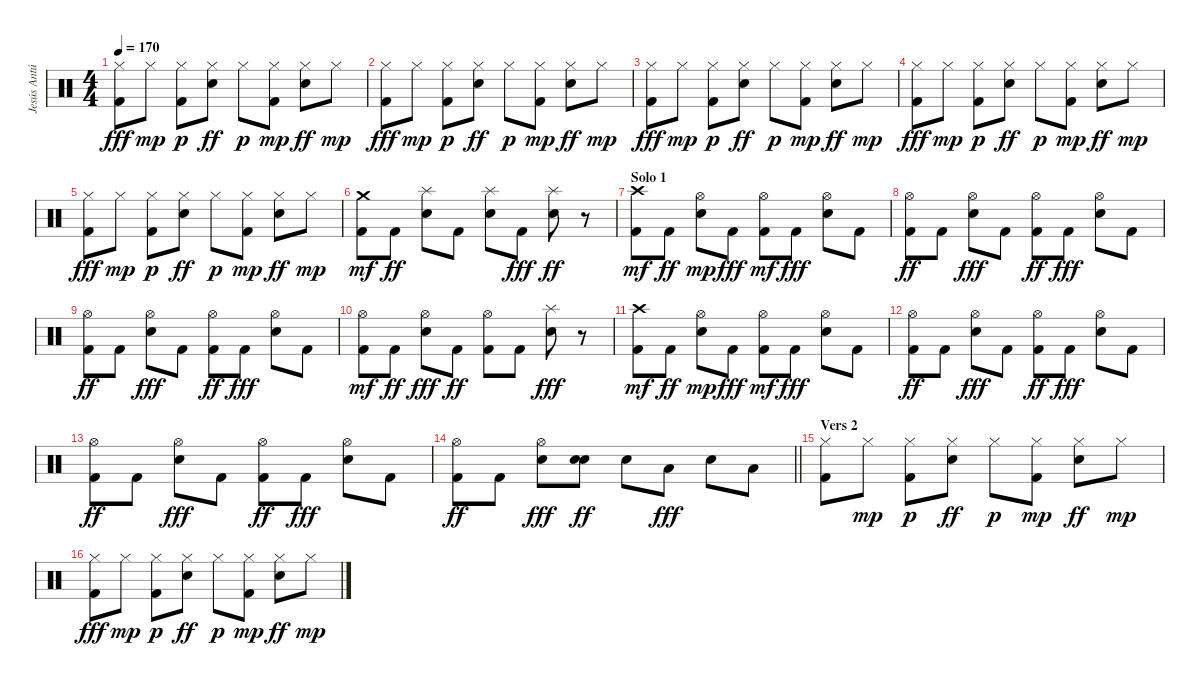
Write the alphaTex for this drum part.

\track ("Jesús Antúnez (Bateria)" "Jesús Antú") {instrument percussion}
\staff {score}
\articulation defaults
\ts (4 4)
\tempo 170
\clef neutral
\ks c
("Kick (hit) 2" "Hi-Hat (closed)").8{dy fff} "Hi-Hat (closed)".8{dy mp} ("Kick (hit) 2" "Hi-Hat (closed)").8{dy p} ("Hi-Hat (closed)" "Electric Snare (hit)").8{dy ff} "Hi-Hat (closed)".8{dy p} ("Kick (hit) 2" "Hi-Hat (closed)").8{dy mp} ("Hi-Hat (closed)" "Electric Snare (hit)").8{dy ff} "Hi-Hat (closed)".8{dy mp} |
("Kick (hit) 2" "Hi-Hat (closed)").8{dy fff} "Hi-Hat (closed)".8{dy mp} ("Kick (hit) 2" "Hi-Hat (closed)").8{dy p} ("Hi-Hat (closed)" "Electric Snare (hit)").8{dy ff} "Hi-Hat (closed)".8{dy p} ("Kick (hit) 2" "Hi-Hat (closed)").8{dy mp} ("Hi-Hat (closed)" "Electric Snare (hit)").8{dy ff} "Hi-Hat (closed)".8{dy mp} |
("Kick (hit) 2" "Hi-Hat (closed)").8{dy fff} "Hi-Hat (closed)".8{dy mp} ("Kick (hit) 2" "Hi-Hat (closed)").8{dy p} ("Hi-Hat (closed)" "Electric Snare (hit)").8{dy ff} "Hi-Hat (closed)".8{dy p} ("Kick (hit) 2" "Hi-Hat (closed)").8{dy mp} ("Hi-Hat (closed)" "Electric Snare (hit)").8{dy ff} "Hi-Hat (closed)".8{dy mp} |
("Kick (hit) 2" "Hi-Hat (closed)").8{dy fff} "Hi-Hat (closed)".8{dy mp} ("Kick (hit) 2" "Hi-Hat (closed)").8{dy p} ("Hi-Hat (closed)" "Electric Snare (hit)").8{dy ff} "Hi-Hat (closed)".8{dy p} ("Kick (hit) 2" "Hi-Hat (closed)").8{dy mp} ("Hi-Hat (closed)" "Electric Snare (hit)").8{dy ff} "Hi-Hat (closed)".8{dy mp} |
("Kick (hit) 2" "Hi-Hat (closed)").8{dy fff} "Hi-Hat (closed)".8{dy mp} ("Kick (hit) 2" "Hi-Hat (closed)").8{dy p} ("Hi-Hat (closed)" "Electric Snare (hit)").8{dy ff} "Hi-Hat (closed)".8{dy p} ("Kick (hit) 2" "Hi-Hat (closed)").8{dy mp} ("Hi-Hat (closed)" "Electric Snare (hit)").8{dy ff} "Hi-Hat (closed)".8{dy mp} |
("Kick (hit) 2" "Crash medium (hit)").8{dy mf} "Kick (hit) 2".8{dy ff} ("Electric Snare (hit)" "Splash (hit)").8 "Kick (hit) 2".8 ("Electric Snare (hit)" "Splash (hit)").8 "Kick (hit) 2".8{dy fff} ("Electric Snare (hit)" "Splash (hit)").8{dy ff} r.8 |
\section ("" "Solo 1")
("Kick (hit) 2" "Crash high (hit)").8{dy mf} "Kick (hit) 2".8{dy ff} ("Electric Snare (hit)" "Hi-Hat (open)").8{dy mp} "Kick (hit) 2".8{dy fff} ("Kick (hit) 2" "Hi-Hat (open)").8{dy mf} "Kick (hit) 2".8{dy fff} ("Electric Snare (hit)" "Hi-Hat (open)").8 "Kick (hit) 2".8 |
("Hi-Hat (open)" "Kick (hit) 2").8{dy ff} "Kick (hit) 2".8 ("Electric Snare (hit)" "Hi-Hat (open)").8{dy fff} "Kick (hit) 2".8 ("Kick (hit) 2" "Hi-Hat (open)").8{dy ff} "Kick (hit) 2".8{dy fff} ("Hi-Hat (open)" "Electric Snare (hit)").8 "Kick (hit) 2".8 |
("Hi-Hat (open)" "Kick (hit) 2").8{dy ff} "Kick (hit) 2".8 ("Electric Snare (hit)" "Hi-Hat (open)").8{dy fff} "Kick (hit) 2".8 ("Kick (hit) 2" "Hi-Hat (open)").8{dy ff} "Kick (hit) 2".8{dy fff} ("Hi-Hat (open)" "Electric Snare (hit)").8 "Kick (hit) 2".8 |
("Kick (hit) 2" "Hi-Hat (open)").8{dy mf} "Kick (hit) 2".8{dy ff} ("Hi-Hat (open)" "Electric Snare (hit)").8{dy fff} "Kick (hit) 2".8{dy ff} ("Hi-Hat (open)" "Kick (hit) 2").8 "Kick (hit) 2".8 ("Splash (hit)" "Electric Snare (hit)").8{dy fff} r.8 |
("Kick (hit) 2" "Crash high (hit)").8{dy mf} "Kick (hit) 2".8{dy ff} ("Electric Snare (hit)" "Hi-Hat (open)").8{dy mp} "Kick (hit) 2".8{dy fff} ("Kick (hit) 2" "Hi-Hat (open)").8{dy mf} "Kick (hit) 2".8{dy fff} ("Electric Snare (hit)" "Hi-Hat (open)").8 "Kick (hit) 2".8 |
("Hi-Hat (open)" "Kick (hit) 2").8{dy ff} "Kick (hit) 2".8 ("Electric Snare (hit)" "Hi-Hat (open)").8{dy fff} "Kick (hit) 2".8 ("Kick (hit) 2" "Hi-Hat (open)").8{dy ff} "Kick (hit) 2".8{dy fff} ("Hi-Hat (open)" "Electric Snare (hit)").8 "Kick (hit) 2".8 |
("Hi-Hat (open)" "Kick (hit) 2").8{dy ff} "Kick (hit) 2".8 ("Electric Snare (hit)" "Hi-Hat (open)").8{dy fff} "Kick (hit) 2".8 ("Kick (hit) 2" "Hi-Hat (open)").8{dy ff} "Kick (hit) 2".8{dy fff} ("Hi-Hat (open)" "Electric Snare (hit)").8 "Kick (hit) 2".8 |
\barLineRight lightlight
("Kick (hit) 2" "Hi-Hat (open)").8{dy ff} "Kick (hit) 2".8 ("Electric Snare (hit)" "Hi-Hat (open)").8{dy fff} ("Electric Snare (hit)" "Electric Snare (hit)").8{dy ff} "Electric Snare (hit)".8 "Low Tom (hit)".8{dy fff} "Electric Snare (hit)".8 "Low Floor Tom (hit)".8 |
\section ("" "Vers 2")
("Kick (hit) 2" "Hi-Hat (closed)").8 "Hi-Hat (closed)".8{dy mp} ("Kick (hit) 2" "Hi-Hat (closed)").8{dy p} ("Hi-Hat (closed)" "Electric Snare (hit)").8{dy ff} "Hi-Hat (closed)".8{dy p} ("Kick (hit) 2" "Hi-Hat (closed)").8{dy mp} ("Hi-Hat (closed)" "Electric Snare (hit)").8{dy ff} "Hi-Hat (closed)".8{dy mp} |
("Kick (hit) 2" "Hi-Hat (closed)").8{dy fff} "Hi-Hat (closed)".8{dy mp} ("Kick (hit) 2" "Hi-Hat (closed)").8{dy p} ("Hi-Hat (closed)" "Electric Snare (hit)").8{dy ff} "Hi-Hat (closed)".8{dy p} ("Kick (hit) 2" "Hi-Hat (closed)").8{dy mp} ("Hi-Hat (closed)" "Electric Snare (hit)").8{dy ff} "Hi-Hat (closed)".8{dy mp}
